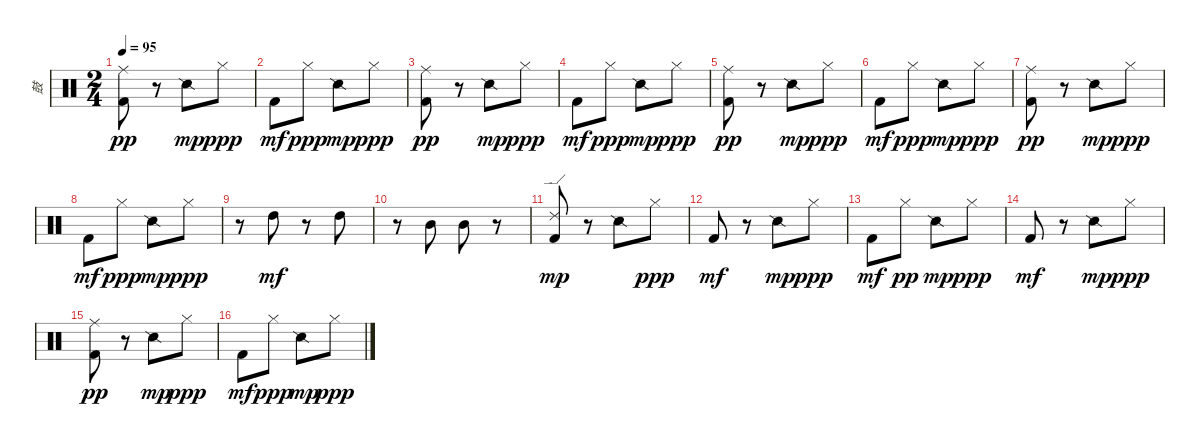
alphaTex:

\track ("鼓" "鼓") {instrument percussion}
\staff {score}
\articulation defaults
\ts (2 4)
\tempo 95
\clef neutral
\ks c
("Kick (hit) 2" "Ride (middle)").8{dy pp} r.8 "Snare (side stick) 2".8{dy mp} "Hi-Hat (closed)".8{dy ppp} |
"Kick (hit) 2".8{dy mf} "Hi-Hat (closed)".8{dy ppp} "Snare (side stick) 2".8{dy mp} "Hi-Hat (closed)".8{dy ppp} |
("Kick (hit) 2" "Ride (middle)").8{dy pp} r.8 "Snare (side stick) 2".8{dy mp} "Hi-Hat (closed)".8{dy ppp} |
"Kick (hit) 2".8{dy mf} "Hi-Hat (closed)".8{dy ppp} "Snare (side stick) 2".8{dy mp} "Hi-Hat (closed)".8{dy ppp} |
("Kick (hit) 2" "Ride (middle)").8{dy pp} r.8 "Snare (side stick) 2".8{dy mp} "Hi-Hat (closed)".8{dy ppp} |
"Kick (hit) 2".8{dy mf} "Hi-Hat (closed)".8{dy ppp} "Snare (side stick) 2".8{dy mp} "Hi-Hat (closed)".8{dy ppp} |
("Kick (hit) 2" "Ride (middle)").8{dy pp} r.8 "Snare (side stick) 2".8{dy mp} "Hi-Hat (closed)".8{dy ppp} |
"Kick (hit) 2".8{dy mf} "Hi-Hat (closed)".8{dy ppp} "Snare (side stick) 2".8{dy mp} "Hi-Hat (closed)".8{dy ppp} |
r.8 "High Tom (hit)".8{dy mf} r.8 "High Tom (hit)".8 |
r.8 "Mid Tom (hit)".8 "Mid Tom (hit)".8 r.8 |
("Kick (hit) 2" "Ride (edge) 2").8{dy mp} r.8 "Snare (side stick) 2".8 "Hi-Hat (closed)".8{dy ppp} |
"Kick (hit) 2".8{dy mf} r.8 "Snare (side stick) 2".8{dy mp} "Hi-Hat (closed)".8{dy ppp} |
"Kick (hit) 2".8{dy mf} "Hi-Hat (closed)".8{dy pp} "Snare (side stick) 2".8{dy mp} "Hi-Hat (closed)".8{dy ppp} |
"Kick (hit) 2".8{dy mf} r.8 "Snare (side stick) 2".8{dy mp} "Hi-Hat (closed)".8{dy ppp} |
("Kick (hit) 2" "Ride (middle)").8{dy pp} r.8 "Snare (side stick) 2".8{dy mp} "Hi-Hat (closed)".8{dy ppp} |
"Kick (hit) 2".8{dy mf} "Hi-Hat (closed)".8{dy ppp} "Snare (side stick) 2".8{dy mp} "Hi-Hat (closed)".8{dy ppp}
